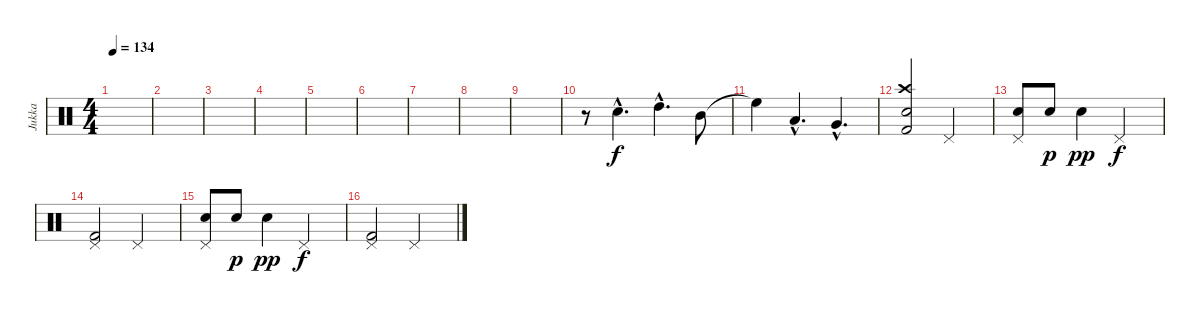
\track ("Jukka" "Jukka") {instrument percussion}
\staff {score}
\articulation defaults
\ts (4 4)
\tempo 134
\clef neutral
\ks c
|
|
|
|
|
|
|
|
|
r.8 "Electric Snare (hit)"{hac}.4{d} "High Tom (hit)"{hac}.4{d} "Mid Tom (hit)".8 |
"High Floor Tom (hit)"{t}.4 "Low Tom (hit)"{hac}.4{d} "Very Low Tom (hit)"{hac}.4{d} |
("Crash high (hit)" "Electric Snare (hit)" "Kick (hit) 2").2 "Pedal Hi-Hat (hit)".2 |
("Pedal Hi-Hat (hit)" "Electric Snare (hit)").8 "Electric Snare (hit)".8{dy p} "Electric Snare (hit)".4{dy pp} "Pedal Hi-Hat (hit)".2{dy f} |
("Pedal Hi-Hat (hit)" "Kick (hit) 2").2 "Pedal Hi-Hat (hit)".2 |
("Pedal Hi-Hat (hit)" "Electric Snare (hit)").8 "Electric Snare (hit)".8{dy p} "Electric Snare (hit)".4{dy pp} "Pedal Hi-Hat (hit)".2{dy f} |
("Pedal Hi-Hat (hit)" "Kick (hit) 2").2 "Pedal Hi-Hat (hit)".2
